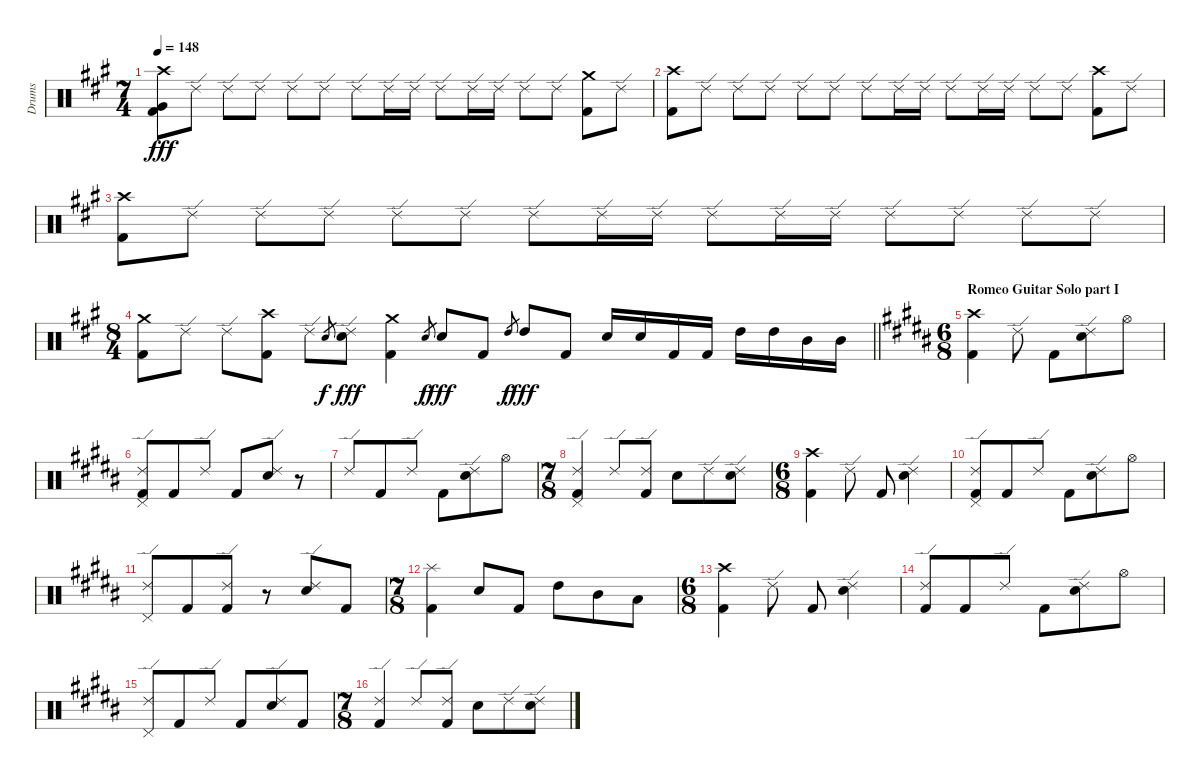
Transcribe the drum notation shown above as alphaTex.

\track ("Drums" "Drums") {instrument percussion}
\staff {score}
\articulation defaults
\ts (7 4)
\tempo 148
\clef neutral
\ks a
("Crash high (hit)" "Very Low Tom (hit)" "Kick (hit) 2").8{dy fff} "Ride (edge) 2".8 "Ride (edge) 2".8 "Ride (edge) 2".8 "Ride (edge) 2".8 "Ride (edge) 2".8 "Ride (edge) 2".8 "Ride (edge) 2".16 "Ride (edge) 2".16 "Ride (edge) 2".8 "Ride (edge) 2".16 "Ride (edge) 2".16 "Ride (edge) 2".8 "Ride (edge) 2".8 ("Crash medium (hit)" "Kick (hit) 2").8 "Ride (edge) 2".8 |
("Crash high (hit)" "Kick (hit) 2").8 "Ride (edge) 2".8 "Ride (edge) 2".8 "Ride (edge) 2".8 "Ride (edge) 2".8 "Ride (edge) 2".8 "Ride (edge) 2".8 "Ride (edge) 2".16 "Ride (edge) 2".16 "Ride (edge) 2".8 "Ride (edge) 2".16 "Ride (edge) 2".16 "Ride (edge) 2".8 "Ride (edge) 2".8 ("Crash high (hit)" "Kick (hit) 2").8 "Ride (edge) 2".8 |
("Crash high (hit)" "Kick (hit) 2").8 "Ride (edge) 2".8 "Ride (edge) 2".8 "Ride (edge) 2".8 "Ride (edge) 2".8 "Ride (edge) 2".8 "Ride (edge) 2".8 "Ride (edge) 2".16 "Ride (edge) 2".16 "Ride (edge) 2".8 "Ride (edge) 2".16 "Ride (edge) 2".16 "Ride (edge) 2".8 "Ride (edge) 2".8 "Ride (edge) 2".8 "Ride (edge) 2".8 |
\ts (8 4)
\barLineRight lightlight
("Crash medium (hit)" "Kick (hit) 2").8 "Ride (edge) 2".8 "Ride (edge) 2".8 ("Crash high (hit)" "Kick (hit) 2").8 "Ride (edge) 2".8 "Electric Snare (hit)".8{gr dy f} ("Ride (edge) 2" "Electric Snare (hit)").8{dy fff} ("Crash medium (hit)" "Kick (hit) 2").4 "Electric Snare (hit)".8{gr dy f} "Electric Snare (hit)".8{dy fff} "Kick (hit) 2".8 "High Tom (hit)".8{gr dy f} "High Tom (hit)".8{dy fff} "Kick (hit) 2".8 "Electric Snare (hit)".16 "Electric Snare (hit)".16 "Kick (hit) 2".16 "Kick (hit) 2".16 "High Tom (hit)".16 "High Tom (hit)".16 "Mid Tom (hit)".16 "Mid Tom (hit)".16 |
\ts (6 8)
\section ("" "Romeo Guitar Solo part I")
\ks b
("Crash high (hit)" "Kick (hit) 2").4 "Ride (edge) 2".8 "Kick (hit) 2".8 ("Ride (edge) 2" "Electric Snare (hit)").8 "Hi-Hat (open)".8 |
("Ride (edge) 2" "Pedal Hi-Hat (hit)" "Kick (hit) 2").8 "Kick (hit) 2".8 "Ride (edge) 2".8 "Kick (hit) 2".8 ("Ride (edge) 2" "Electric Snare (hit)").8 r.8 |
"Ride (edge) 2".8 "Kick (hit) 2".8 "Ride (edge) 2".8 "Kick (hit) 2".8 ("Ride (edge) 2" "Electric Snare (hit)").8 "Hi-Hat (open)".8 |
\ts (7 8)
("Ride (edge) 2" "Pedal Hi-Hat (hit)" "Kick (hit) 2").4 "Ride (edge) 2".8 ("Ride (edge) 2" "Kick (hit) 2").8 "Electric Snare (hit)".8 "Ride (edge) 2".8 ("Ride (edge) 2" "Electric Snare (hit)").8 |
\ts (6 8)
("Crash high (hit)" "Kick (hit) 2").4 "Ride (edge) 2".8 "Kick (hit) 2".8 ("Ride (edge) 2" "Electric Snare (hit)").4 |
("Ride (edge) 2" "Pedal Hi-Hat (hit)" "Kick (hit) 2").8 "Kick (hit) 2".8 "Ride (edge) 2".8 "Kick (hit) 2".8 ("Ride (edge) 2" "Electric Snare (hit)").8 "Hi-Hat (open)".8 |
("Ride (edge) 2" "Pedal Hi-Hat (hit)").8 "Kick (hit) 2".8 ("Ride (edge) 2" "Kick (hit) 2").8 r.8 ("Ride (edge) 2" "Electric Snare (hit)").8 "Kick (hit) 2".8 |
\ts (7 8)
("Splash (hit)" "Kick (hit) 2").4 "Electric Snare (hit)".8 "Kick (hit) 2".8 "High Tom (hit)".8 "Mid Tom (hit)".8 "Low Tom (hit)".8 |
\ts (6 8)
("Crash high (hit)" "Kick (hit) 2").4 "Ride (edge) 2".8 "Kick (hit) 2".8 ("Ride (edge) 2" "Electric Snare (hit)").4 |
("Ride (edge) 2" "Kick (hit) 2").8 "Kick (hit) 2".8 "Ride (edge) 2".8 "Kick (hit) 2".8 ("Ride (edge) 2" "Electric Snare (hit)").8 "Hi-Hat (open)".8 |
("Ride (edge) 2" "Pedal Hi-Hat (hit)").8 "Kick (hit) 2".8 "Ride (edge) 2".8 "Kick (hit) 2".8 ("Ride (edge) 2" "Electric Snare (hit)").8 "Kick (hit) 2".8 |
\ts (7 8)
("Ride (edge) 2" "Kick (hit) 2").4 "Ride (edge) 2".8 ("Ride (edge) 2" "Kick (hit) 2").8 "Electric Snare (hit)".8 "Ride (edge) 2".8 ("Ride (edge) 2" "Electric Snare (hit)").8
